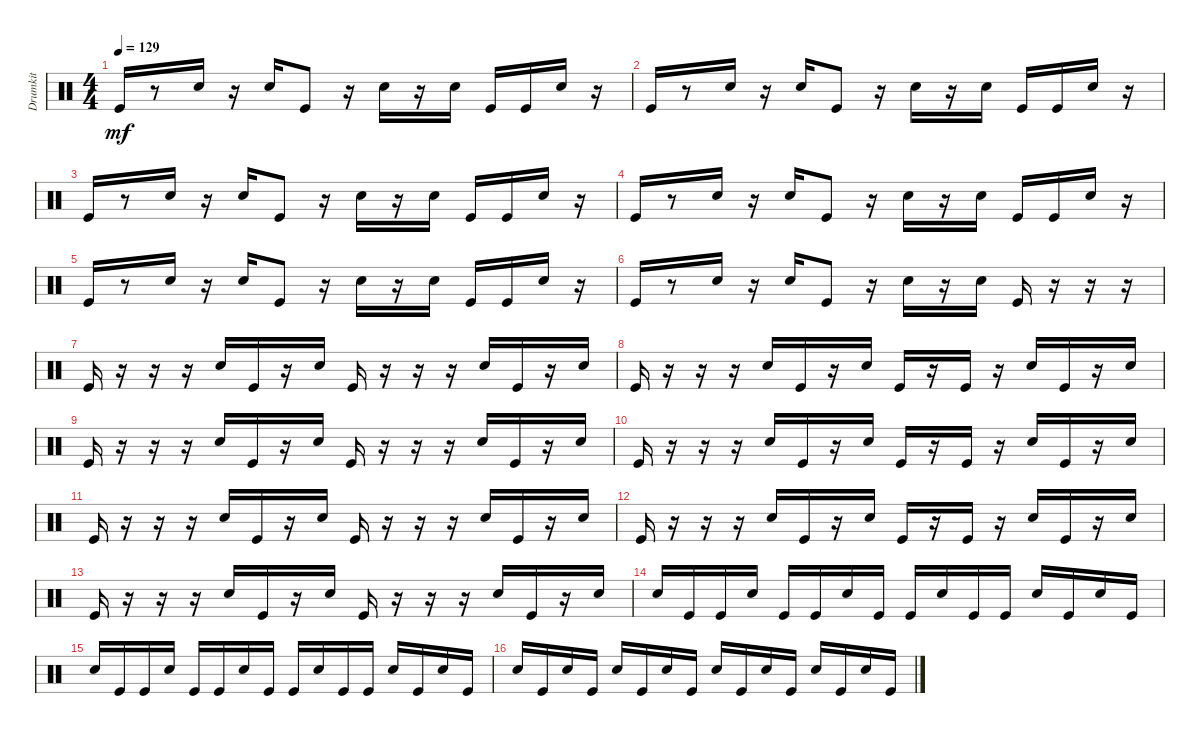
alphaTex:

\track ("Drumkit" "Drumkit") {instrument percussion}
\staff {score}
\articulation defaults
\ts (4 4)
\tempo 129
\clef neutral
\ks c "Kick (hit)".16{dy mf}
r.8 "Snare (hit) 2".16 r.16 "Snare (hit) 2".16 "Kick (hit)".8 r.16 "Snare (hit) 2".16 r.16 "Snare (hit) 2".16 "Kick (hit)".16 "Kick (hit)".16 "Snare (hit) 2".16 r.16 |
"Kick (hit)".16 r.8 "Snare (hit) 2".16 r.16 "Snare (hit) 2".16 "Kick (hit)".8 r.16 "Snare (hit) 2".16 r.16 "Snare (hit) 2".16 "Kick (hit)".16 "Kick (hit)".16 "Snare (hit) 2".16 r.16 |
"Kick (hit)".16 r.8 "Snare (hit) 2".16 r.16 "Snare (hit) 2".16 "Kick (hit)".8 r.16 "Snare (hit) 2".16 r.16 "Snare (hit) 2".16 "Kick (hit)".16 "Kick (hit)".16 "Snare (hit) 2".16 r.16 |
"Kick (hit)".16 r.8 "Snare (hit) 2".16 r.16 "Snare (hit) 2".16 "Kick (hit)".8 r.16 "Snare (hit) 2".16 r.16 "Snare (hit) 2".16 "Kick (hit)".16 "Kick (hit)".16 "Snare (hit) 2".16 r.16 |
"Kick (hit)".16 r.8 "Snare (hit) 2".16 r.16 "Snare (hit) 2".16 "Kick (hit)".8 r.16 "Snare (hit) 2".16 r.16 "Snare (hit) 2".16 "Kick (hit)".16 "Kick (hit)".16 "Snare (hit) 2".16 r.16 |
"Kick (hit)".16 r.8 "Snare (hit) 2".16 r.16 "Snare (hit) 2".16 "Kick (hit)".8 r.16 "Snare (hit) 2".16 r.16 "Snare (hit) 2".16 "Kick (hit)".16 r.16 r.16 r.16 |
"Kick (hit)".16 r.16 r.16 r.16 "Snare (hit) 2".16 "Kick (hit)".16 r.16 "Snare (hit) 2".16 "Kick (hit)".16 r.16 r.16 r.16 "Snare (hit) 2".16 "Kick (hit)".16 r.16 "Snare (hit) 2".16 |
"Kick (hit)".16 r.16 r.16 r.16 "Snare (hit) 2".16 "Kick (hit)".16 r.16 "Snare (hit) 2".16 "Kick (hit)".16 r.16 "Kick (hit)".16 r.16 "Snare (hit) 2".16 "Kick (hit)".16 r.16 "Snare (hit) 2".16 |
"Kick (hit)".16 r.16 r.16 r.16 "Snare (hit) 2".16 "Kick (hit)".16 r.16 "Snare (hit) 2".16 "Kick (hit)".16 r.16 r.16 r.16 "Snare (hit) 2".16 "Kick (hit)".16 r.16 "Snare (hit) 2".16 |
"Kick (hit)".16 r.16 r.16 r.16 "Snare (hit) 2".16 "Kick (hit)".16 r.16 "Snare (hit) 2".16 "Kick (hit)".16 r.16 "Kick (hit)".16 r.16 "Snare (hit) 2".16 "Kick (hit)".16 r.16 "Snare (hit) 2".16 |
"Kick (hit)".16 r.16 r.16 r.16 "Snare (hit) 2".16 "Kick (hit)".16 r.16 "Snare (hit) 2".16 "Kick (hit)".16 r.16 r.16 r.16 "Snare (hit) 2".16 "Kick (hit)".16 r.16 "Snare (hit) 2".16 |
"Kick (hit)".16 r.16 r.16 r.16 "Snare (hit) 2".16 "Kick (hit)".16 r.16 "Snare (hit) 2".16 "Kick (hit)".16 r.16 "Kick (hit)".16 r.16 "Snare (hit) 2".16 "Kick (hit)".16 r.16 "Snare (hit) 2".16 |
"Kick (hit)".16 r.16 r.16 r.16 "Snare (hit) 2".16 "Kick (hit)".16 r.16 "Snare (hit) 2".16 "Kick (hit)".16 r.16 r.16 r.16 "Snare (hit) 2".16 "Kick (hit)".16 r.16 "Snare (hit) 2".16 |
"Snare (hit) 2".16 "Kick (hit)".16 "Kick (hit)".16 "Snare (hit) 2".16 "Kick (hit)".16 "Kick (hit)".16 "Snare (hit) 2".16 "Kick (hit)".16 "Kick (hit)".16 "Snare (hit) 2".16 "Kick (hit)".16 "Kick (hit)".16 "Snare (hit) 2".16 "Kick (hit)".16 "Snare (hit) 2".16 "Kick (hit)".16 |
"Snare (hit) 2".16 "Kick (hit)".16 "Kick (hit)".16 "Snare (hit) 2".16 "Kick (hit)".16 "Kick (hit)".16 "Snare (hit) 2".16 "Kick (hit)".16 "Kick (hit)".16 "Snare (hit) 2".16 "Kick (hit)".16 "Kick (hit)".16 "Snare (hit) 2".16 "Kick (hit)".16 "Snare (hit) 2".16 "Kick (hit)".16 |
"Snare (hit) 2".16 "Kick (hit)".16 "Snare (hit) 2".16 "Kick (hit)".16 "Snare (hit) 2".16 "Kick (hit)".16 "Snare (hit) 2".16 "Kick (hit)".16 "Snare (hit) 2".16 "Kick (hit)".16 "Snare (hit) 2".16 "Kick (hit)".16 "Snare (hit) 2".16 "Kick (hit)".16 "Snare (hit) 2".16 "Kick (hit)".16
